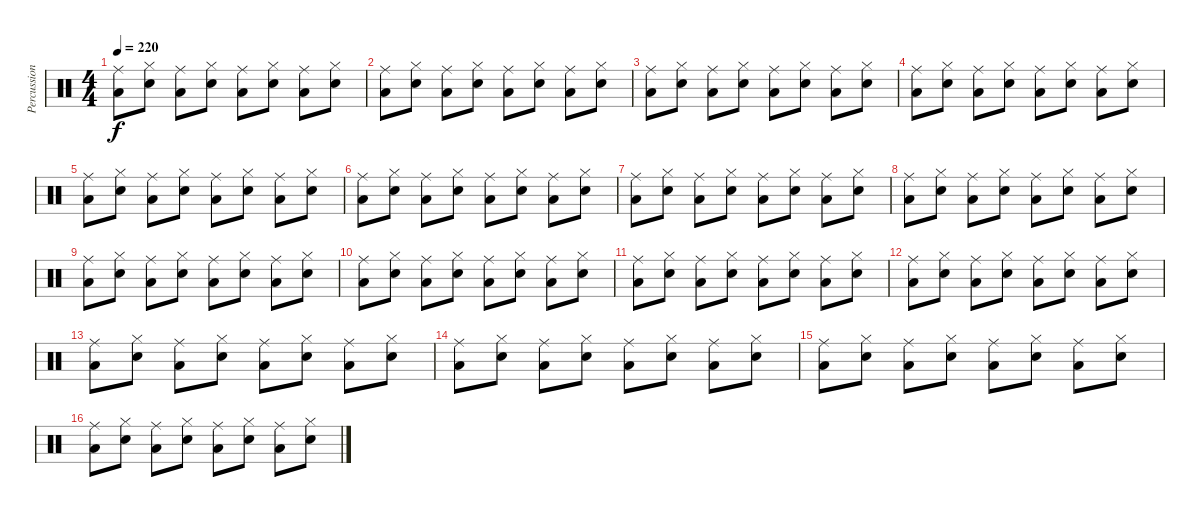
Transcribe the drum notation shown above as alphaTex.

\track ("Percussion" "Percussion") {instrument percussion}
\staff {score}
\articulation defaults
\ts (4 4)
\tempo 220
\clef neutral
\ks c
("Low Floor Tom (hit)" "Ride (middle)").8{dy f} ("Electric Snare (hit)" "Hi-Hat (closed)").8 ("Low Floor Tom (hit)" "Ride (middle)").8 ("Electric Snare (hit)" "Hi-Hat (closed)").8 ("Low Floor Tom (hit)" "Ride (middle)").8 ("Electric Snare (hit)" "Hi-Hat (closed)").8 ("Low Floor Tom (hit)" "Ride (middle)").8 ("Electric Snare (hit)" "Hi-Hat (closed)").8 |
("Low Floor Tom (hit)" "Ride (middle)").8 ("Electric Snare (hit)" "Hi-Hat (closed)").8 ("Low Floor Tom (hit)" "Ride (middle)").8 ("Electric Snare (hit)" "Hi-Hat (closed)").8 ("Low Floor Tom (hit)" "Ride (middle)").8 ("Electric Snare (hit)" "Hi-Hat (closed)").8 ("Low Floor Tom (hit)" "Ride (middle)").8 ("Electric Snare (hit)" "Hi-Hat (closed)").8 |
("Low Floor Tom (hit)" "Ride (middle)").8 ("Electric Snare (hit)" "Hi-Hat (closed)").8 ("Low Floor Tom (hit)" "Ride (middle)").8 ("Electric Snare (hit)" "Hi-Hat (closed)").8 ("Low Floor Tom (hit)" "Ride (middle)").8 ("Electric Snare (hit)" "Hi-Hat (closed)").8 ("Low Floor Tom (hit)" "Ride (middle)").8 ("Electric Snare (hit)" "Hi-Hat (closed)").8 |
("Low Floor Tom (hit)" "Ride (middle)").8 ("Electric Snare (hit)" "Hi-Hat (closed)").8 ("Low Floor Tom (hit)" "Ride (middle)").8 ("Electric Snare (hit)" "Hi-Hat (closed)").8 ("Low Floor Tom (hit)" "Ride (middle)").8 ("Electric Snare (hit)" "Hi-Hat (closed)").8 ("Low Floor Tom (hit)" "Ride (middle)").8 ("Electric Snare (hit)" "Hi-Hat (closed)").8 |
("Low Floor Tom (hit)" "Ride (middle)").8 ("Electric Snare (hit)" "Hi-Hat (closed)").8 ("Low Floor Tom (hit)" "Ride (middle)").8 ("Electric Snare (hit)" "Hi-Hat (closed)").8 ("Low Floor Tom (hit)" "Ride (middle)").8 ("Electric Snare (hit)" "Hi-Hat (closed)").8 ("Low Floor Tom (hit)" "Ride (middle)").8 ("Electric Snare (hit)" "Hi-Hat (closed)").8 |
("Low Floor Tom (hit)" "Ride (middle)").8 ("Electric Snare (hit)" "Hi-Hat (closed)").8 ("Low Floor Tom (hit)" "Ride (middle)").8 ("Electric Snare (hit)" "Hi-Hat (closed)").8 ("Low Floor Tom (hit)" "Ride (middle)").8 ("Electric Snare (hit)" "Hi-Hat (closed)").8 ("Low Floor Tom (hit)" "Ride (middle)").8 ("Electric Snare (hit)" "Hi-Hat (closed)").8 |
("Low Floor Tom (hit)" "Ride (middle)").8 ("Electric Snare (hit)" "Hi-Hat (closed)").8 ("Low Floor Tom (hit)" "Ride (middle)").8 ("Electric Snare (hit)" "Hi-Hat (closed)").8 ("Low Floor Tom (hit)" "Ride (middle)").8 ("Electric Snare (hit)" "Hi-Hat (closed)").8 ("Low Floor Tom (hit)" "Ride (middle)").8 ("Electric Snare (hit)" "Hi-Hat (closed)").8 |
("Low Floor Tom (hit)" "Ride (middle)").8 ("Electric Snare (hit)" "Hi-Hat (closed)").8 ("Low Floor Tom (hit)" "Ride (middle)").8 ("Electric Snare (hit)" "Hi-Hat (closed)").8 ("Low Floor Tom (hit)" "Ride (middle)").8 ("Electric Snare (hit)" "Hi-Hat (closed)").8 ("Low Floor Tom (hit)" "Ride (middle)").8 ("Electric Snare (hit)" "Hi-Hat (closed)").8 |
("Low Floor Tom (hit)" "Ride (middle)").8 ("Electric Snare (hit)" "Hi-Hat (closed)").8 ("Low Floor Tom (hit)" "Ride (middle)").8 ("Electric Snare (hit)" "Hi-Hat (closed)").8 ("Low Floor Tom (hit)" "Ride (middle)").8 ("Electric Snare (hit)" "Hi-Hat (closed)").8 ("Low Floor Tom (hit)" "Ride (middle)").8 ("Electric Snare (hit)" "Hi-Hat (closed)").8 |
("Low Floor Tom (hit)" "Ride (middle)").8 ("Electric Snare (hit)" "Hi-Hat (closed)").8 ("Low Floor Tom (hit)" "Ride (middle)").8 ("Electric Snare (hit)" "Hi-Hat (closed)").8 ("Low Floor Tom (hit)" "Ride (middle)").8 ("Electric Snare (hit)" "Hi-Hat (closed)").8 ("Low Floor Tom (hit)" "Ride (middle)").8 ("Electric Snare (hit)" "Hi-Hat (closed)").8 |
("Low Floor Tom (hit)" "Ride (middle)").8 ("Electric Snare (hit)" "Hi-Hat (closed)").8 ("Low Floor Tom (hit)" "Ride (middle)").8 ("Electric Snare (hit)" "Hi-Hat (closed)").8 ("Low Floor Tom (hit)" "Ride (middle)").8 ("Electric Snare (hit)" "Hi-Hat (closed)").8 ("Low Floor Tom (hit)" "Ride (middle)").8 ("Electric Snare (hit)" "Hi-Hat (closed)").8 |
("Low Floor Tom (hit)" "Ride (middle)").8 ("Electric Snare (hit)" "Hi-Hat (closed)").8 ("Low Floor Tom (hit)" "Ride (middle)").8 ("Electric Snare (hit)" "Hi-Hat (closed)").8 ("Low Floor Tom (hit)" "Ride (middle)").8 ("Electric Snare (hit)" "Hi-Hat (closed)").8 ("Low Floor Tom (hit)" "Ride (middle)").8 ("Electric Snare (hit)" "Hi-Hat (closed)").8 |
("Low Floor Tom (hit)" "Ride (middle)").8 ("Electric Snare (hit)" "Hi-Hat (closed)").8 ("Low Floor Tom (hit)" "Ride (middle)").8 ("Electric Snare (hit)" "Hi-Hat (closed)").8 ("Low Floor Tom (hit)" "Ride (middle)").8 ("Electric Snare (hit)" "Hi-Hat (closed)").8 ("Low Floor Tom (hit)" "Ride (middle)").8 ("Electric Snare (hit)" "Hi-Hat (closed)").8 |
("Low Floor Tom (hit)" "Ride (middle)").8 ("Electric Snare (hit)" "Hi-Hat (closed)").8 ("Low Floor Tom (hit)" "Ride (middle)").8 ("Electric Snare (hit)" "Hi-Hat (closed)").8 ("Low Floor Tom (hit)" "Ride (middle)").8 ("Electric Snare (hit)" "Hi-Hat (closed)").8 ("Low Floor Tom (hit)" "Ride (middle)").8 ("Electric Snare (hit)" "Hi-Hat (closed)").8 |
("Low Floor Tom (hit)" "Ride (middle)").8 ("Electric Snare (hit)" "Hi-Hat (closed)").8 ("Low Floor Tom (hit)" "Ride (middle)").8 ("Electric Snare (hit)" "Hi-Hat (closed)").8 ("Low Floor Tom (hit)" "Ride (middle)").8 ("Electric Snare (hit)" "Hi-Hat (closed)").8 ("Low Floor Tom (hit)" "Ride (middle)").8 ("Electric Snare (hit)" "Hi-Hat (closed)").8 |
("Low Floor Tom (hit)" "Ride (middle)").8 ("Electric Snare (hit)" "Hi-Hat (closed)").8 ("Low Floor Tom (hit)" "Ride (middle)").8 ("Electric Snare (hit)" "Hi-Hat (closed)").8 ("Low Floor Tom (hit)" "Ride (middle)").8 ("Electric Snare (hit)" "Hi-Hat (closed)").8 ("Low Floor Tom (hit)" "Ride (middle)").8 ("Electric Snare (hit)" "Hi-Hat (closed)").8
